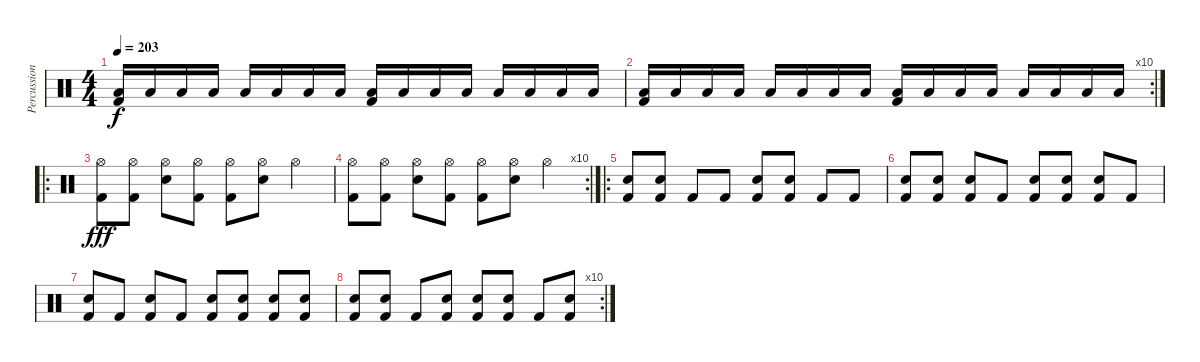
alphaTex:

\track ("Percussion" "Percussion") {instrument percussion}
\staff {score}
\articulation defaults
\ts (4 4)
\tempo 203
\clef neutral
\ks c
("Low Floor Tom (hit)" "Kick (hit) 2").16{dy f} "Low Floor Tom (hit)".16 "Low Floor Tom (hit)".16 "Low Floor Tom (hit)".16 "Low Floor Tom (hit)".16 "Low Floor Tom (hit)".16 "Low Floor Tom (hit)".16 "Low Floor Tom (hit)".16 ("Low Floor Tom (hit)" "Kick (hit) 2").16 "Low Floor Tom (hit)".16 "Low Floor Tom (hit)".16 "Low Floor Tom (hit)".16 "Low Floor Tom (hit)".16 "Low Floor Tom (hit)".16 "Low Floor Tom (hit)".16 "Low Floor Tom (hit)".16 |
\rc 10
("Low Floor Tom (hit)" "Kick (hit) 2").16 "Low Floor Tom (hit)".16 "Low Floor Tom (hit)".16 "Low Floor Tom (hit)".16 "Low Floor Tom (hit)".16 "Low Floor Tom (hit)".16 "Low Floor Tom (hit)".16 "Low Floor Tom (hit)".16 ("Low Floor Tom (hit)" "Kick (hit) 2").16 "Low Floor Tom (hit)".16 "Low Floor Tom (hit)".16 "Low Floor Tom (hit)".16 "Low Floor Tom (hit)".16 "Low Floor Tom (hit)".16 "Low Floor Tom (hit)".16 "Low Floor Tom (hit)".16 |
\ro
("Hi-Hat (open)" "Kick (hit) 2").8{dy fff} ("Hi-Hat (open)" "Kick (hit) 2").8 ("Hi-Hat (open)" "Snare (hit) 2").8 ("Hi-Hat (open)" "Kick (hit) 2").8 ("Hi-Hat (open)" "Kick (hit) 2").8 ("Hi-Hat (open)" "Snare (hit) 2").8 "Hi-Hat (open)".4 |
\rc 10
("Hi-Hat (open)" "Kick (hit) 2").8 ("Hi-Hat (open)" "Kick (hit) 2").8 ("Hi-Hat (open)" "Snare (hit) 2").8 ("Hi-Hat (open)" "Kick (hit) 2").8 ("Hi-Hat (open)" "Kick (hit) 2").8 ("Hi-Hat (open)" "Snare (hit) 2").8 "Hi-Hat (open)".4 |
\ro
("Snare (hit) 2" "Kick (hit) 2").8 ("Snare (hit) 2" "Kick (hit) 2").8 "Kick (hit) 2".8 "Kick (hit) 2".8 ("Snare (hit) 2" "Kick (hit) 2").8 ("Snare (hit) 2" "Kick (hit) 2").8 "Kick (hit) 2".8 "Kick (hit) 2".8 |
("Snare (hit) 2" "Kick (hit) 2").8 ("Snare (hit) 2" "Kick (hit) 2").8 ("Snare (hit) 2" "Kick (hit) 2").8 "Kick (hit) 2".8 ("Snare (hit) 2" "Kick (hit) 2").8 ("Snare (hit) 2" "Kick (hit) 2").8 ("Snare (hit) 2" "Kick (hit) 2").8 "Kick (hit) 2".8 |
("Snare (hit) 2" "Kick (hit) 2").8 "Kick (hit) 2".8 ("Snare (hit) 2" "Kick (hit) 2").8 "Kick (hit) 2".8 ("Snare (hit) 2" "Kick (hit) 2").8 ("Snare (hit) 2" "Kick (hit) 2").8 ("Snare (hit) 2" "Kick (hit) 2").8 ("Snare (hit) 2" "Kick (hit) 2").8 |
\rc 10
("Snare (hit) 2" "Kick (hit) 2").8 ("Snare (hit) 2" "Kick (hit) 2").8 "Kick (hit) 2".8 ("Snare (hit) 2" "Kick (hit) 2").8 ("Snare (hit) 2" "Kick (hit) 2").8 ("Snare (hit) 2" "Kick (hit) 2").8 "Kick (hit) 2".8 ("Snare (hit) 2" "Kick (hit) 2").8
